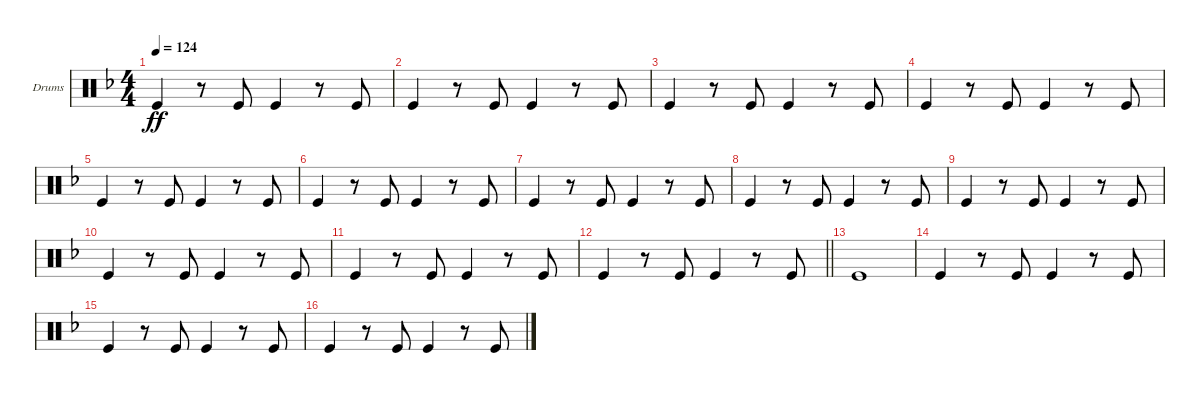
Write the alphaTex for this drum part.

\bracketExtendMode groupsimilarinstruments
\firstSystemTrackNameOrientation horizontal
\otherSystemsTrackNameOrientation horizontal
\track ("Kick Drum" "Drums") {instrument percussion}
\staff {score}
\articulation defaults
\ts (4 4)
\tempo 124
\clef neutral
\scale
0.333333
\ks dminor "Kick (hit)".4{dy ff}
r.8 "Kick (hit)".8 "Kick (hit)".4 r.8 "Kick (hit)".8 |
\scale
0.333333 "Kick (hit)".4 r.8 "Kick (hit)".8 "Kick (hit)".4 r.8 "Kick (hit)".8 |
\scale
0.333333 "Kick (hit)".4 r.8 "Kick (hit)".8 "Kick (hit)".4 r.8 "Kick (hit)".8 |
\scale
0.333333 "Kick (hit)".4 r.8 "Kick (hit)".8 "Kick (hit)".4 r.8 "Kick (hit)".8 |
\scale
0.333333 "Kick (hit)".4 r.8 "Kick (hit)".8 "Kick (hit)".4 r.8 "Kick (hit)".8 |
\scale
0.333333 "Kick (hit)".4 r.8 "Kick (hit)".8 "Kick (hit)".4 r.8 "Kick (hit)".8 |
\scale
0.333333 "Kick (hit)".4 r.8 "Kick (hit)".8 "Kick (hit)".4 r.8 "Kick (hit)".8 |
\scale
0.333333 "Kick (hit)".4 r.8 "Kick (hit)".8 "Kick (hit)".4 r.8 "Kick (hit)".8 |
\scale
0.333333 "Kick (hit)".4 r.8 "Kick (hit)".8 "Kick (hit)".4 r.8 "Kick (hit)".8 |
\scale
0.333333 "Kick (hit)".4 r.8 "Kick (hit)".8 "Kick (hit)".4 r.8 "Kick (hit)".8 |
\scale
0.333333 "Kick (hit)".4 r.8 "Kick (hit)".8 "Kick (hit)".4 r.8 "Kick (hit)".8 |
\scale
0.333333
\barLineRight lightlight "Kick (hit)".4
r.8 "Kick (hit)".8 "Kick (hit)".4 r.8 "Kick (hit)".8 |
\scale
0.333333 "Kick (hit)".1 |
\scale
0.333333 "Kick (hit)".4 r.8 "Kick (hit)".8 "Kick (hit)".4 r.8 "Kick (hit)".8 |
\scale
0.333333 "Kick (hit)".4 r.8 "Kick (hit)".8 "Kick (hit)".4 r.8 "Kick (hit)".8 |
\scale
0.333333 "Kick (hit)".4 r.8 "Kick (hit)".8 "Kick (hit)".4 r.8 "Kick (hit)".8
